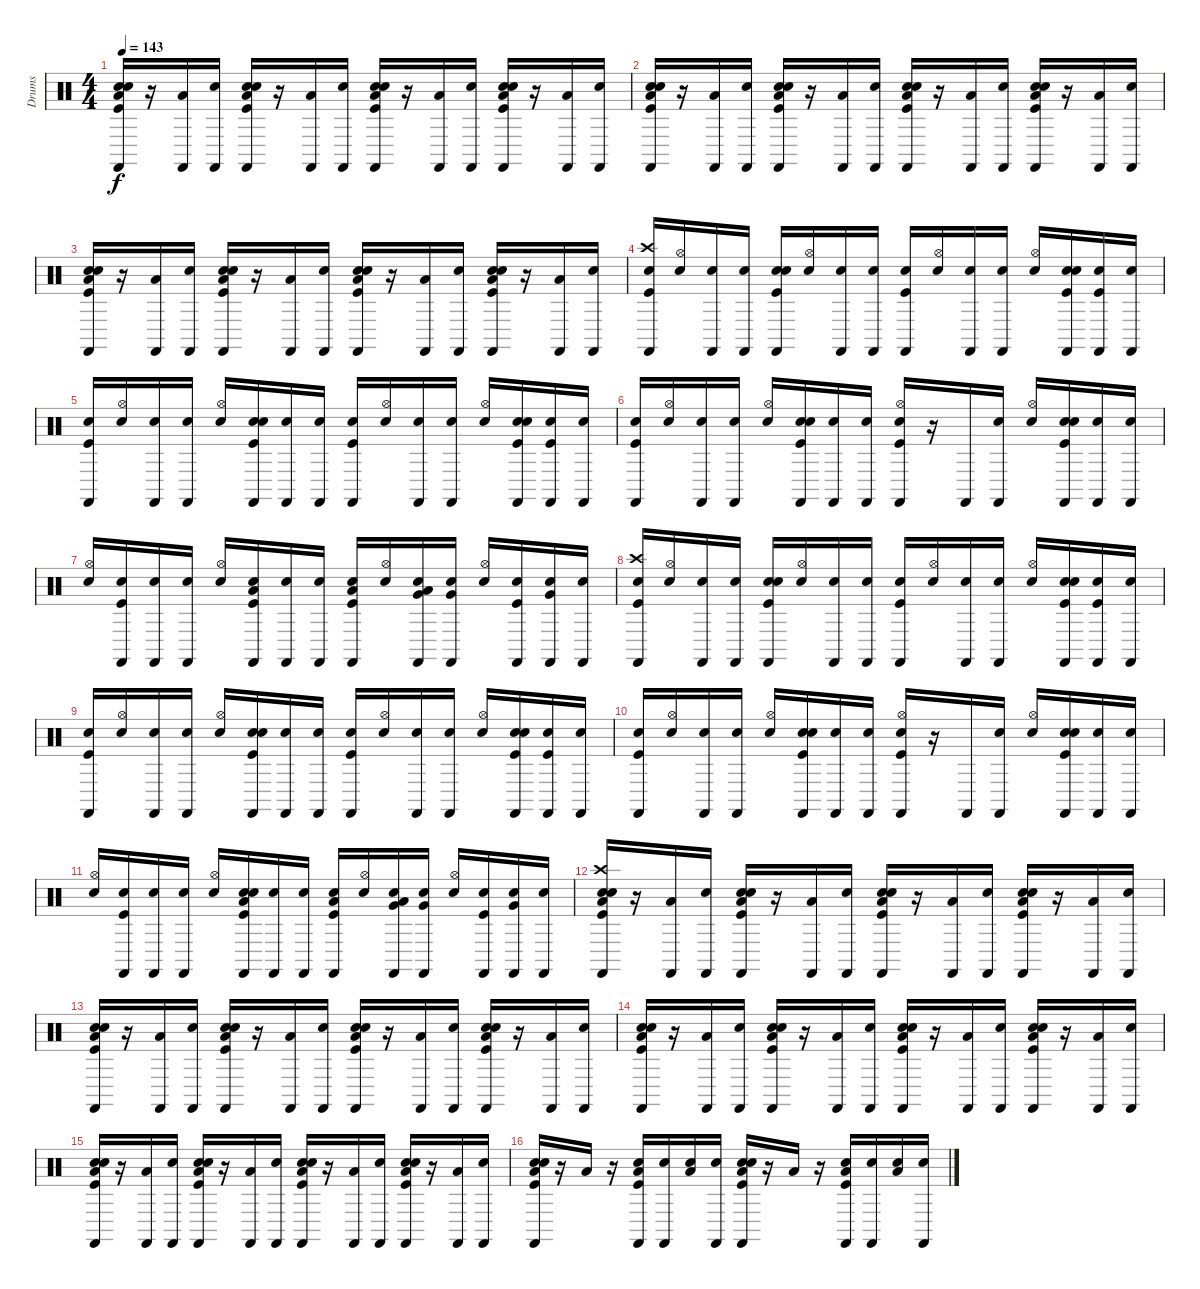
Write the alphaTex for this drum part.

\track ("Drums" "Drums") {instrument percussion}
\staff {score}
\articulation defaults
\ts (4 4)
\tempo 143
\clef neutral
\ks c
("Snare (hit)" "Low Tom (hit)" "Electric Snare (hit)" "Kick (hit)" "Castanets (hit)").16{dy f} r.16 ("Low Tom (hit)" "Castanets (hit)").16 ("Snare (hit)" "Castanets (hit)").16 ("Snare (hit)" "Low Tom (hit)" "Electric Snare (hit)" "Kick (hit)" "Castanets (hit)").16 r.16 ("Low Tom (hit)" "Castanets (hit)").16 ("Snare (hit)" "Castanets (hit)").16 ("Snare (hit)" "Low Tom (hit)" "Electric Snare (hit)" "Kick (hit)" "Castanets (hit)").16 r.16 ("Low Tom (hit)" "Castanets (hit)").16 ("Snare (hit)" "Castanets (hit)").16 ("Snare (hit)" "Low Tom (hit)" "Electric Snare (hit)" "Kick (hit)" "Castanets (hit)").16 r.16 ("Low Tom (hit)" "Castanets (hit)").16 ("Snare (hit)" "Castanets (hit)").16 |
("Snare (hit)" "Low Tom (hit)" "Electric Snare (hit)" "Kick (hit)" "Castanets (hit)").16 r.16 ("Low Tom (hit)" "Castanets (hit)").16 ("Snare (hit)" "Castanets (hit)").16 ("Snare (hit)" "Low Tom (hit)" "Electric Snare (hit)" "Kick (hit)" "Castanets (hit)").16 r.16 ("Low Tom (hit)" "Castanets (hit)").16 ("Snare (hit)" "Castanets (hit)").16 ("Snare (hit)" "Low Tom (hit)" "Electric Snare (hit)" "Kick (hit)" "Castanets (hit)").16 r.16 ("Low Tom (hit)" "Castanets (hit)").16 ("Snare (hit)" "Castanets (hit)").16 ("Snare (hit)" "Low Tom (hit)" "Electric Snare (hit)" "Kick (hit)" "Castanets (hit)").16 r.16 ("Low Tom (hit)" "Castanets (hit)").16 ("Snare (hit)" "Castanets (hit)").16 |
("Snare (hit)" "Low Tom (hit)" "Electric Snare (hit)" "Kick (hit)" "Castanets (hit)").16 r.16 ("Low Tom (hit)" "Castanets (hit)").16 ("Snare (hit)" "Castanets (hit)").16 ("Snare (hit)" "Low Tom (hit)" "Electric Snare (hit)" "Kick (hit)" "Castanets (hit)").16 r.16 ("Low Tom (hit)" "Castanets (hit)").16 ("Snare (hit)" "Castanets (hit)").16 ("Snare (hit)" "Low Tom (hit)" "Electric Snare (hit)" "Kick (hit)" "Castanets (hit)").16 r.16 ("Low Tom (hit)" "Castanets (hit)").16 ("Snare (hit)" "Castanets (hit)").16 ("Snare (hit)" "Low Tom (hit)" "Electric Snare (hit)" "Kick (hit)" "Castanets (hit)").16 r.16 ("Low Tom (hit)" "Castanets (hit)").16 ("Snare (hit)" "Castanets (hit)").16 |
("Snare (hit)" "Kick (hit)" "Crash high (hit)" "Castanets (hit)").16 ("Snare (hit)" "Hi-Hat (open)").16 ("Snare (hit)" "Castanets (hit)").16 ("Snare (hit)" "Castanets (hit)").16 ("Snare (hit)" "Electric Snare (hit)" "Kick (hit)" "Castanets (hit)").16 ("Snare (hit)" "Hi-Hat (open)").16 ("Snare (hit)" "Castanets (hit)").16 ("Snare (hit)" "Castanets (hit)").16 ("Snare (hit)" "Kick (hit)" "Castanets (hit)").16 ("Snare (hit)" "Hi-Hat (open)").16 ("Snare (hit)" "Castanets (hit)").16 ("Snare (hit)" "Castanets (hit)").16 ("Snare (hit)" "Hi-Hat (open)").16 ("Snare (hit)" "Electric Snare (hit)" "Kick (hit)" "Castanets (hit)").16 ("Snare (hit)" "Kick (hit)" "Castanets (hit)").16 ("Snare (hit)" "Castanets (hit)").16 |
("Snare (hit)" "Kick (hit)" "Castanets (hit)").16 ("Snare (hit)" "Hi-Hat (open)").16 ("Snare (hit)" "Castanets (hit)").16 ("Snare (hit)" "Castanets (hit)").16 ("Snare (hit)" "Hi-Hat (open)").16 ("Snare (hit)" "Electric Snare (hit)" "Kick (hit)" "Castanets (hit)").16 ("Snare (hit)" "Castanets (hit)").16 ("Snare (hit)" "Castanets (hit)").16 ("Snare (hit)" "Kick (hit)" "Castanets (hit)").16 ("Snare (hit)" "Hi-Hat (open)").16 ("Snare (hit)" "Castanets (hit)").16 ("Snare (hit)" "Castanets (hit)").16 ("Snare (hit)" "Hi-Hat (open)").16 ("Snare (hit)" "Electric Snare (hit)" "Kick (hit)" "Castanets (hit)").16 ("Snare (hit)" "Kick (hit)" "Castanets (hit)").16 ("Snare (hit)" "Castanets (hit)").16 |
("Snare (hit)" "Kick (hit)" "Castanets (hit)").16 ("Snare (hit)" "Hi-Hat (open)").16 ("Snare (hit)" "Castanets (hit)").16 ("Snare (hit)" "Castanets (hit)").16 ("Snare (hit)" "Hi-Hat (open)").16 ("Snare (hit)" "Electric Snare (hit)" "Kick (hit)" "Castanets (hit)").16 ("Snare (hit)" "Castanets (hit)").16 ("Snare (hit)" "Castanets (hit)").16 ("Snare (hit)" "Kick (hit)" "Castanets (hit)" "Hi-Hat (open)").16 r.16 "Castanets (hit)".16 ("Snare (hit)" "Castanets (hit)").16 ("Snare (hit)" "Hi-Hat (open)").16 ("Snare (hit)" "Electric Snare (hit)" "Kick (hit)" "Castanets (hit)").16 ("Snare (hit)" "Castanets (hit)").16 ("Snare (hit)" "Castanets (hit)").16 |
("Snare (hit)" "Hi-Hat (open)").16 ("Snare (hit)" "Kick (hit)" "Castanets (hit)").16 ("Snare (hit)" "Castanets (hit)").16 ("Snare (hit)" "Castanets (hit)").16 ("Snare (hit)" "Hi-Hat (open)").16 ("Snare (hit)" "Kick (hit)" "Low Tom (hit)" "Castanets (hit)").16 ("Snare (hit)" "Castanets (hit)").16 ("Snare (hit)" "Castanets (hit)").16 ("Snare (hit)" "Kick (hit)" "Low Tom (hit)" "Castanets (hit)").16 ("Snare (hit)" "Hi-Hat (open)").16 ("Snare (hit)" "Very Low Tom (hit)" "Low Tom (hit)" "Castanets (hit)").16 ("Snare (hit)" "Very Low Tom (hit)" "Castanets (hit)").16 ("Snare (hit)" "Hi-Hat (open)").16 ("Snare (hit)" "Kick (hit)" "Castanets (hit)").16 ("Snare (hit)" "Very Low Tom (hit)" "Castanets (hit)").16 ("Snare (hit)" "Castanets (hit)").16 |
("Snare (hit)" "Kick (hit)" "Crash high (hit)" "Castanets (hit)").16 ("Snare (hit)" "Hi-Hat (open)").16 ("Snare (hit)" "Castanets (hit)").16 ("Snare (hit)" "Castanets (hit)").16 ("Snare (hit)" "Electric Snare (hit)" "Kick (hit)" "Castanets (hit)").16 ("Snare (hit)" "Hi-Hat (open)").16 ("Snare (hit)" "Castanets (hit)").16 ("Snare (hit)" "Castanets (hit)").16 ("Snare (hit)" "Kick (hit)" "Castanets (hit)").16 ("Snare (hit)" "Hi-Hat (open)").16 ("Snare (hit)" "Castanets (hit)").16 ("Snare (hit)" "Castanets (hit)").16 ("Snare (hit)" "Hi-Hat (open)").16 ("Snare (hit)" "Electric Snare (hit)" "Kick (hit)" "Castanets (hit)").16 ("Snare (hit)" "Kick (hit)" "Castanets (hit)").16 ("Snare (hit)" "Castanets (hit)").16 |
("Snare (hit)" "Kick (hit)" "Castanets (hit)").16 ("Snare (hit)" "Hi-Hat (open)").16 ("Snare (hit)" "Castanets (hit)").16 ("Snare (hit)" "Castanets (hit)").16 ("Snare (hit)" "Hi-Hat (open)").16 ("Snare (hit)" "Electric Snare (hit)" "Kick (hit)" "Castanets (hit)").16 ("Snare (hit)" "Castanets (hit)").16 ("Snare (hit)" "Castanets (hit)").16 ("Snare (hit)" "Kick (hit)" "Castanets (hit)").16 ("Snare (hit)" "Hi-Hat (open)").16 ("Snare (hit)" "Castanets (hit)").16 ("Snare (hit)" "Castanets (hit)").16 ("Snare (hit)" "Hi-Hat (open)").16 ("Snare (hit)" "Electric Snare (hit)" "Kick (hit)" "Castanets (hit)").16 ("Snare (hit)" "Kick (hit)" "Castanets (hit)").16 ("Snare (hit)" "Castanets (hit)").16 |
("Snare (hit)" "Kick (hit)" "Castanets (hit)").16 ("Snare (hit)" "Hi-Hat (open)").16 ("Snare (hit)" "Castanets (hit)").16 ("Snare (hit)" "Castanets (hit)").16 ("Snare (hit)" "Hi-Hat (open)").16 ("Snare (hit)" "Electric Snare (hit)" "Kick (hit)" "Castanets (hit)").16 ("Snare (hit)" "Castanets (hit)").16 ("Snare (hit)" "Castanets (hit)").16 ("Snare (hit)" "Kick (hit)" "Castanets (hit)" "Hi-Hat (open)").16 r.16 "Castanets (hit)".16 ("Snare (hit)" "Castanets (hit)").16 ("Snare (hit)" "Hi-Hat (open)").16 ("Snare (hit)" "Electric Snare (hit)" "Kick (hit)" "Castanets (hit)").16 ("Snare (hit)" "Castanets (hit)").16 ("Snare (hit)" "Castanets (hit)").16 |
("Snare (hit)" "Hi-Hat (open)").16 ("Snare (hit)" "Kick (hit)" "Castanets (hit)").16 ("Snare (hit)" "Castanets (hit)").16 ("Snare (hit)" "Castanets (hit)").16 ("Snare (hit)" "Hi-Hat (open)").16 ("Snare (hit)" "Electric Snare (hit)" "Kick (hit)" "Low Tom (hit)" "Castanets (hit)").16 ("Snare (hit)" "Castanets (hit)").16 ("Snare (hit)" "Castanets (hit)").16 ("Snare (hit)" "Kick (hit)" "Low Tom (hit)" "Castanets (hit)").16 ("Snare (hit)" "Hi-Hat (open)").16 ("Snare (hit)" "Very Low Tom (hit)" "Low Tom (hit)" "Castanets (hit)").16 ("Snare (hit)" "Very Low Tom (hit)" "Castanets (hit)").16 ("Snare (hit)" "Hi-Hat (open)").16 ("Snare (hit)" "Kick (hit)" "Castanets (hit)").16 ("Snare (hit)" "Very Low Tom (hit)" "Castanets (hit)").16 ("Snare (hit)" "Castanets (hit)").16 |
("Snare (hit)" "Low Tom (hit)" "Electric Snare (hit)" "Kick (hit)" "Crash high (hit)" "Castanets (hit)").16 r.16 ("Low Tom (hit)" "Castanets (hit)").16 ("Snare (hit)" "Castanets (hit)").16 ("Snare (hit)" "Low Tom (hit)" "Electric Snare (hit)" "Kick (hit)" "Castanets (hit)").16 r.16 ("Low Tom (hit)" "Castanets (hit)").16 ("Snare (hit)" "Castanets (hit)").16 ("Snare (hit)" "Low Tom (hit)" "Electric Snare (hit)" "Kick (hit)" "Castanets (hit)").16 r.16 ("Low Tom (hit)" "Castanets (hit)").16 ("Snare (hit)" "Castanets (hit)").16 ("Snare (hit)" "Low Tom (hit)" "Electric Snare (hit)" "Kick (hit)" "Castanets (hit)").16 r.16 ("Low Tom (hit)" "Castanets (hit)").16 ("Snare (hit)" "Castanets (hit)").16 |
("Snare (hit)" "Low Tom (hit)" "Electric Snare (hit)" "Kick (hit)" "Castanets (hit)").16 r.16 ("Low Tom (hit)" "Castanets (hit)").16 ("Snare (hit)" "Castanets (hit)").16 ("Snare (hit)" "Low Tom (hit)" "Electric Snare (hit)" "Kick (hit)" "Castanets (hit)").16 r.16 ("Low Tom (hit)" "Castanets (hit)").16 ("Snare (hit)" "Castanets (hit)").16 ("Snare (hit)" "Low Tom (hit)" "Electric Snare (hit)" "Kick (hit)" "Castanets (hit)").16 r.16 ("Low Tom (hit)" "Castanets (hit)").16 ("Snare (hit)" "Castanets (hit)").16 ("Snare (hit)" "Low Tom (hit)" "Electric Snare (hit)" "Kick (hit)" "Castanets (hit)").16 r.16 ("Low Tom (hit)" "Castanets (hit)").16 ("Snare (hit)" "Castanets (hit)").16 |
("Snare (hit)" "Low Tom (hit)" "Electric Snare (hit)" "Kick (hit)" "Castanets (hit)").16 r.16 ("Low Tom (hit)" "Castanets (hit)").16 ("Snare (hit)" "Castanets (hit)").16 ("Snare (hit)" "Low Tom (hit)" "Electric Snare (hit)" "Kick (hit)" "Castanets (hit)").16 r.16 ("Low Tom (hit)" "Castanets (hit)").16 ("Snare (hit)" "Castanets (hit)").16 ("Snare (hit)" "Low Tom (hit)" "Electric Snare (hit)" "Kick (hit)" "Castanets (hit)").16 r.16 ("Low Tom (hit)" "Castanets (hit)").16 ("Snare (hit)" "Castanets (hit)").16 ("Snare (hit)" "Low Tom (hit)" "Electric Snare (hit)" "Kick (hit)" "Castanets (hit)").16 r.16 ("Low Tom (hit)" "Castanets (hit)").16 ("Snare (hit)" "Castanets (hit)").16 |
("Snare (hit)" "Low Tom (hit)" "Electric Snare (hit)" "Kick (hit)" "Castanets (hit)").16 r.16 ("Low Tom (hit)" "Castanets (hit)").16 ("Snare (hit)" "Castanets (hit)").16 ("Snare (hit)" "Low Tom (hit)" "Electric Snare (hit)" "Kick (hit)" "Castanets (hit)").16 r.16 ("Low Tom (hit)" "Castanets (hit)").16 ("Snare (hit)" "Castanets (hit)").16 ("Snare (hit)" "Low Tom (hit)" "Electric Snare (hit)" "Kick (hit)" "Castanets (hit)").16 r.16 ("Low Tom (hit)" "Castanets (hit)").16 ("Snare (hit)" "Castanets (hit)").16 ("Snare (hit)" "Low Tom (hit)" "Electric Snare (hit)" "Kick (hit)" "Castanets (hit)").16 r.16 ("Low Tom (hit)" "Castanets (hit)").16 ("Snare (hit)" "Castanets (hit)").16 |
("Snare (hit)" "Low Tom (hit)" "Electric Snare (hit)" "Kick (hit)" "Castanets (hit)").16 r.16 "Low Tom (hit)".16 r.16 ("Low Tom (hit)" "Electric Snare (hit)" "Kick (hit)" "Castanets (hit)").16 ("Snare (hit)" "Castanets (hit)").16 ("Snare (hit)" "Low Tom (hit)").16 ("Snare (hit)" "Castanets (hit)").16 ("Snare (hit)" "Low Tom (hit)" "Electric Snare (hit)" "Kick (hit)" "Castanets (hit)").16 r.16 "Low Tom (hit)".16 r.16 ("Low Tom (hit)" "Electric Snare (hit)" "Kick (hit)" "Castanets (hit)").16 ("Snare (hit)" "Castanets (hit)").16 ("Snare (hit)" "Low Tom (hit)").16 ("Snare (hit)" "Castanets (hit)").16
